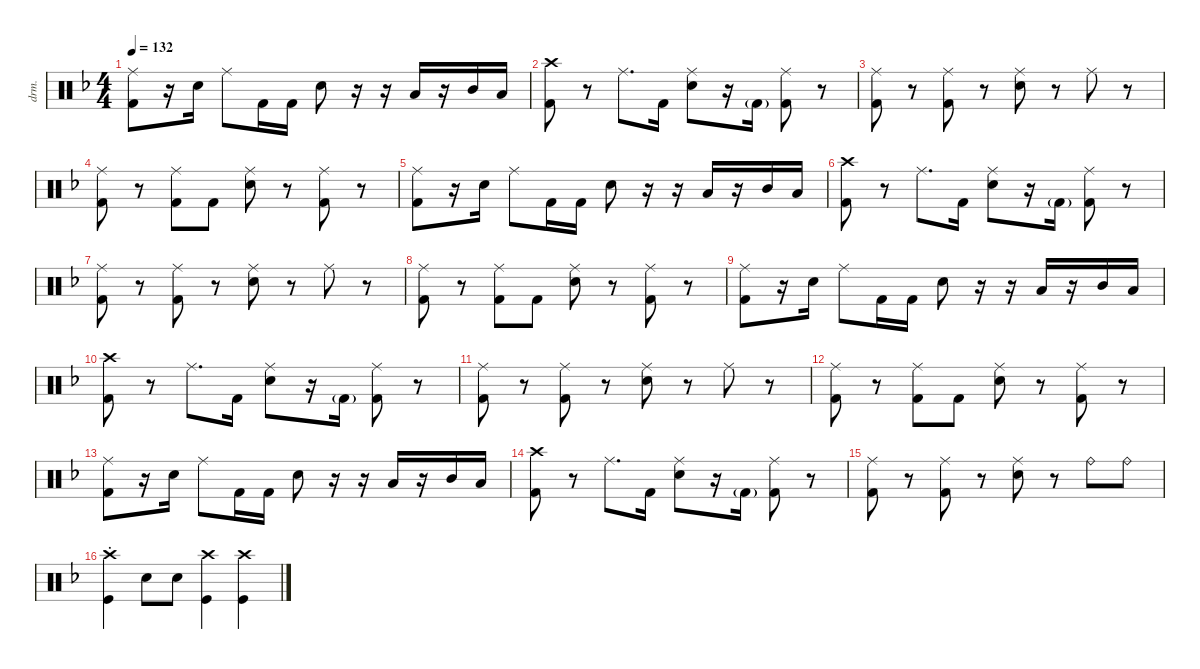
\defaultSystemsLayout 4
\hideDynamics
\bracketExtendMode nobrackets
\otherSystemsTrackNameOrientation horizontal
\track ("Drums" "drm.") {instrument percussion}
\staff {score}
\articulation defaults
\ts (4 4)
\tempo 132
\clef neutral
\ks dminor
("Ride (middle)"{acc forcenatural} "Kick (hit) 2"{acc forcenatural}).8{dy f} r.16 "Snare (hit) 2"{acc forcenatural}.16 "Ride (middle)"{acc forcenatural}.8 "Kick (hit) 2"{acc forcenatural}.16 "Kick (hit) 2"{acc forcenatural}.16 "Snare (hit) 2"{acc forcenatural}.8 r.16 r.16 "Low Tom (hit)"{acc forcenatural}.16 r.16 "Mid Tom (hit)"{acc forcenatural}.16 "Low Tom (hit)"{acc forcenatural}.16 |
("Crash high (hit)"{acc forcenatural} "Kick (hit) 2"{acc forcenatural}).8 r.8 "Ride (middle)"{acc forcenatural}.8{d} "Kick (hit) 2"{acc forcenatural}.16 ("Ride (middle)"{acc forcenatural} "Snare (hit) 2"{acc forcenatural}).8 r.16 "Kick (hit) 2"{g acc forcenatural}.16{dy mf} ("Ride (middle)"{acc forcenatural} "Kick (hit) 2"{acc forcenatural}).8{dy f} r.8 |
("Ride (middle)"{acc forcenatural} "Kick (hit) 2"{acc forcenatural}).8 r.8 ("Ride (middle)"{acc forcenatural} "Kick (hit) 2"{acc forcenatural}).8 r.8 ("Ride (middle)"{acc forcenatural} "Snare (hit) 2"{acc forcenatural}).8 r.8 "Ride (middle)"{acc forcenatural}.8 r.8 |
("Ride (middle)"{acc forcenatural} "Kick (hit) 2"{acc forcenatural}).8 r.8 ("Ride (middle)"{acc forcenatural} "Kick (hit) 2"{acc forcenatural}).8 "Kick (hit) 2"{acc forcenatural}.8 ("Ride (middle)"{acc forcenatural} "Snare (hit) 2"{acc forcenatural}).8 r.8 ("Ride (middle)"{acc forcenatural} "Kick (hit) 2"{acc forcenatural}).8 r.8 |
("Ride (middle)"{acc forcenatural} "Kick (hit) 2"{acc forcenatural}).8 r.16 "Snare (hit) 2"{acc forcenatural}.16 "Ride (middle)"{acc forcenatural}.8 "Kick (hit) 2"{acc forcenatural}.16 "Kick (hit) 2"{acc forcenatural}.16 "Snare (hit) 2"{acc forcenatural}.8 r.16 r.16 "Low Tom (hit)"{acc forcenatural}.16 r.16 "Mid Tom (hit)"{acc forcenatural}.16 "Low Tom (hit)"{acc forcenatural}.16 |
("Crash high (hit)"{acc forcenatural} "Kick (hit) 2"{acc forcenatural}).8 r.8 "Ride (middle)"{acc forcenatural}.8{d} "Kick (hit) 2"{acc forcenatural}.16 ("Ride (middle)"{acc forcenatural} "Snare (hit) 2"{acc forcenatural}).8 r.16 "Kick (hit) 2"{g acc forcenatural}.16{dy mf} ("Ride (middle)"{acc forcenatural} "Kick (hit) 2"{acc forcenatural}).8{dy f} r.8 |
("Ride (middle)"{acc forcenatural} "Kick (hit) 2"{acc forcenatural}).8 r.8 ("Ride (middle)"{acc forcenatural} "Kick (hit) 2"{acc forcenatural}).8 r.8 ("Ride (middle)"{acc forcenatural} "Snare (hit) 2"{acc forcenatural}).8 r.8 "Ride (middle)"{acc forcenatural}.8 r.8 |
("Ride (middle)"{acc forcenatural} "Kick (hit) 2"{acc forcenatural}).8 r.8 ("Ride (middle)"{acc forcenatural} "Kick (hit) 2"{acc forcenatural}).8 "Kick (hit) 2"{acc forcenatural}.8 ("Ride (middle)"{acc forcenatural} "Snare (hit) 2"{acc forcenatural}).8 r.8 ("Ride (middle)"{acc forcenatural} "Kick (hit) 2"{acc forcenatural}).8 r.8 |
("Ride (middle)"{acc forcenatural} "Kick (hit) 2"{acc forcenatural}).8 r.16 "Snare (hit) 2"{acc forcenatural}.16 "Ride (middle)"{acc forcenatural}.8 "Kick (hit) 2"{acc forcenatural}.16 "Kick (hit) 2"{acc forcenatural}.16 "Snare (hit) 2"{acc forcenatural}.8 r.16 r.16 "Low Tom (hit)"{acc forcenatural}.16 r.16 "Mid Tom (hit)"{acc forcenatural}.16 "Low Tom (hit)"{acc forcenatural}.16 |
("Crash high (hit)"{acc forcenatural} "Kick (hit) 2"{acc forcenatural}).8 r.8 "Ride (middle)"{acc forcenatural}.8{d} "Kick (hit) 2"{acc forcenatural}.16 ("Ride (middle)"{acc forcenatural} "Snare (hit) 2"{acc forcenatural}).8 r.16 "Kick (hit) 2"{g acc forcenatural}.16{dy mf} ("Ride (middle)"{acc forcenatural} "Kick (hit) 2"{acc forcenatural}).8{dy f} r.8 |
("Ride (middle)"{acc forcenatural} "Kick (hit) 2"{acc forcenatural}).8 r.8 ("Ride (middle)"{acc forcenatural} "Kick (hit) 2"{acc forcenatural}).8 r.8 ("Ride (middle)"{acc forcenatural} "Snare (hit) 2"{acc forcenatural}).8 r.8 "Ride (middle)"{acc forcenatural}.8 r.8 |
("Ride (middle)"{acc forcenatural} "Kick (hit) 2"{acc forcenatural}).8 r.8 ("Ride (middle)"{acc forcenatural} "Kick (hit) 2"{acc forcenatural}).8 "Kick (hit) 2"{acc forcenatural}.8 ("Ride (middle)"{acc forcenatural} "Snare (hit) 2"{acc forcenatural}).8 r.8 ("Ride (middle)"{acc forcenatural} "Kick (hit) 2"{acc forcenatural}).8 r.8 |
("Ride (middle)"{acc forcenatural} "Kick (hit) 2"{acc forcenatural}).8 r.16 "Snare (hit) 2"{acc forcenatural}.16 "Ride (middle)"{acc forcenatural}.8 "Kick (hit) 2"{acc forcenatural}.16 "Kick (hit) 2"{acc forcenatural}.16 "Snare (hit) 2"{acc forcenatural}.8 r.16 r.16 "Low Tom (hit)"{acc forcenatural}.16 r.16 "Mid Tom (hit)"{acc forcenatural}.16 "Low Tom (hit)"{acc forcenatural}.16 |
("Crash high (hit)"{acc forcenatural} "Kick (hit) 2"{acc forcenatural}).8 r.8 "Ride (middle)"{acc forcenatural}.8{d} "Kick (hit) 2"{acc forcenatural}.16 ("Ride (middle)"{acc forcenatural} "Snare (hit) 2"{acc forcenatural}).8 r.16 "Kick (hit) 2"{g acc forcenatural}.16{dy mf} ("Ride (middle)"{acc forcenatural} "Kick (hit) 2"{acc forcenatural}).8{dy f} r.8 |
("Ride (middle)"{acc forcenatural} "Kick (hit) 2"{acc forcenatural}).8 r.8 ("Ride (middle)"{acc forcenatural} "Kick (hit) 2"{acc forcenatural}).8 r.8 ("Ride (middle)"{acc forcenatural} "Snare (hit) 2"{acc forcenatural}).8 r.8 "Ride (bell)"{acc forcenatural}.8 "Ride (bell)"{acc forcenatural}.8 |
("Kick (hit)"{acc forcenatural} "Crash high (hit)"{st acc forcenatural}).4 "Snare (hit) 2"{acc forcenatural}.8 "Snare (hit) 2"{acc forcenatural}.8 ("Crash high (hit)"{acc forcenatural} "Kick (hit)"{acc forcenatural}).4 ("Crash high (hit)"{acc forcenatural} "Kick (hit)"{acc forcenatural}).4
